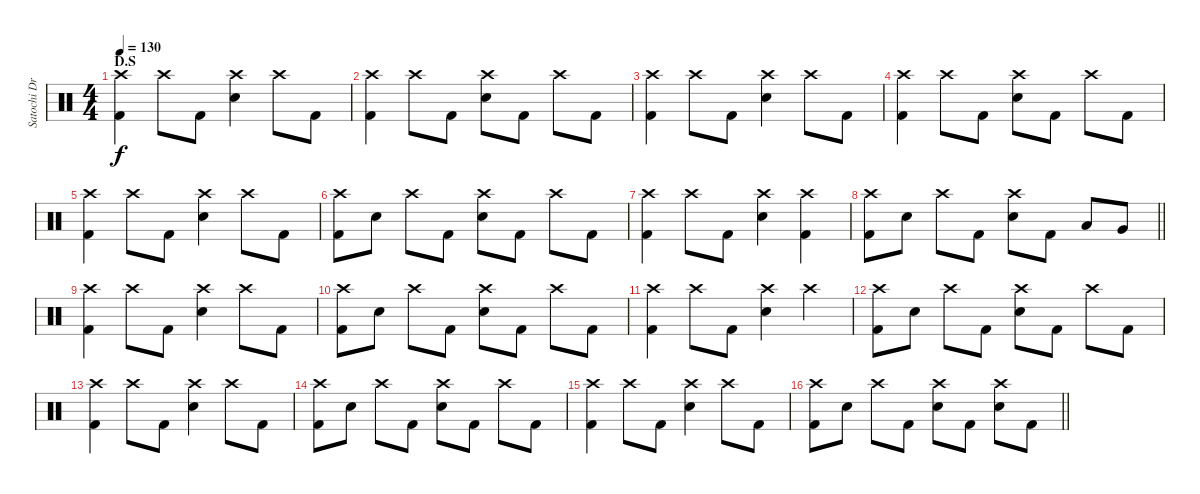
\track ("Satochi Drums" "Satochi Dr") {instrument percussion}
\staff {score}
\articulation defaults
\ts (4 4)
\section ("" "D.S")
\tempo 130
\clef neutral
\ks c
("Crash high (hit)" "Kick (hit) 2").4{dy f} "Crash high (hit)".8 "Kick (hit) 2".8 ("Crash high (hit)" "Snare (hit) 2").4 "Crash high (hit)".8 "Kick (hit) 2".8 |
("Crash high (hit)" "Kick (hit) 2").4 "Crash high (hit)".8 "Kick (hit) 2".8 ("Crash high (hit)" "Snare (hit) 2").8 "Kick (hit) 2".8 "Crash high (hit)".8 "Kick (hit) 2".8 |
("Crash high (hit)" "Kick (hit) 2").4 "Crash high (hit)".8 "Kick (hit) 2".8 ("Crash high (hit)" "Snare (hit) 2").4 "Crash high (hit)".8 "Kick (hit) 2".8 |
("Crash high (hit)" "Kick (hit) 2").4 "Crash high (hit)".8 "Kick (hit) 2".8 ("Crash high (hit)" "Snare (hit) 2").8 "Kick (hit) 2".8 "Crash high (hit)".8 "Kick (hit) 2".8 |
("Crash high (hit)" "Kick (hit) 2").4 "Crash high (hit)".8 "Kick (hit) 2".8 ("Crash high (hit)" "Snare (hit) 2").4 "Crash high (hit)".8 "Kick (hit) 2".8 |
("Crash high (hit)" "Kick (hit) 2").8 "Snare (hit) 2".8 "Crash high (hit)".8 "Kick (hit) 2".8 ("Crash high (hit)" "Snare (hit) 2").8 "Kick (hit) 2".8 "Crash high (hit)".8 "Kick (hit) 2".8 |
("Crash high (hit)" "Kick (hit) 2").4 "Crash high (hit)".8 "Kick (hit) 2".8 ("Crash high (hit)" "Snare (hit) 2").4 ("Crash high (hit)" "Kick (hit) 2").4 |
\barLineRight lightlight
("Crash high (hit)" "Kick (hit) 2").8 "Snare (hit) 2".8 "Crash high (hit)".8 "Kick (hit) 2".8 ("Crash high (hit)" "Snare (hit) 2").8 "Kick (hit) 2".8 "Low Tom (hit)".8 "Very Low Tom (hit)".8 |
("Crash high (hit)" "Kick (hit) 2").4 "Crash high (hit)".8 "Kick (hit) 2".8 ("Crash high (hit)" "Snare (hit) 2").4 "Crash high (hit)".8 "Kick (hit) 2".8 |
("Crash high (hit)" "Kick (hit) 2").8 "Snare (hit) 2".8 "Crash high (hit)".8 "Kick (hit) 2".8 ("Crash high (hit)" "Snare (hit) 2").8 "Kick (hit) 2".8 "Crash high (hit)".8 "Kick (hit) 2".8 |
("Crash high (hit)" "Kick (hit) 2").4 "Crash high (hit)".8 "Kick (hit) 2".8 ("Crash high (hit)" "Snare (hit) 2").4 "Crash high (hit)".4 |
("Crash high (hit)" "Kick (hit) 2").8 "Snare (hit) 2".8 "Crash high (hit)".8 "Kick (hit) 2".8 ("Crash high (hit)" "Snare (hit) 2").8 "Kick (hit) 2".8 "Crash high (hit)".8 "Kick (hit) 2".8 |
("Crash high (hit)" "Kick (hit) 2").4 "Crash high (hit)".8 "Kick (hit) 2".8 ("Crash high (hit)" "Snare (hit) 2").4 "Crash high (hit)".8 "Kick (hit) 2".8 |
("Crash high (hit)" "Kick (hit) 2").8 "Snare (hit) 2".8 "Crash high (hit)".8 "Kick (hit) 2".8 ("Crash high (hit)" "Snare (hit) 2").8 "Kick (hit) 2".8 "Crash high (hit)".8 "Kick (hit) 2".8 |
("Crash high (hit)" "Kick (hit) 2").4 "Crash high (hit)".8 "Kick (hit) 2".8 ("Crash high (hit)" "Snare (hit) 2").4 "Crash high (hit)".8 "Kick (hit) 2".8 |
\barLineRight lightlight
("Crash high (hit)" "Kick (hit) 2").8 "Snare (hit) 2".8 "Crash high (hit)".8 "Kick (hit) 2".8 ("Crash high (hit)" "Snare (hit) 2").8 "Kick (hit) 2".8 ("Crash high (hit)" "Snare (hit) 2").8 "Kick (hit) 2".8
